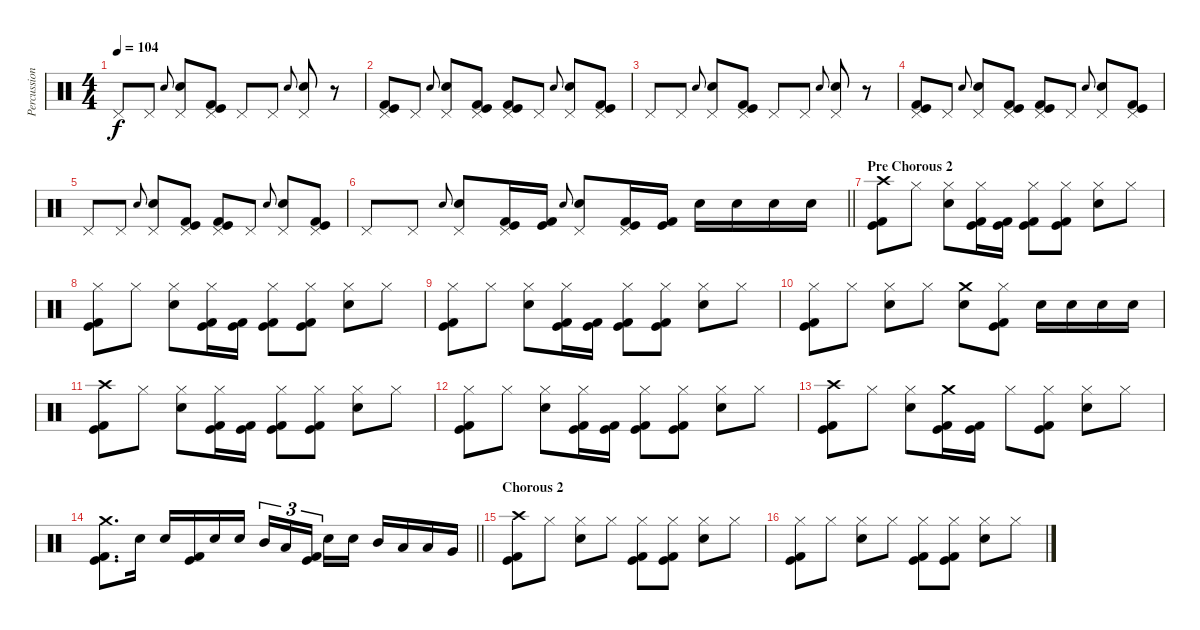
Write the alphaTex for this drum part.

\track ("Percussion" "Percussion") {instrument percussion}
\staff {score}
\articulation defaults
\ts (4 4)
\tempo 104
\clef neutral
\ks c "Pedal Hi-Hat (hit)".8{dy f} "Pedal Hi-Hat (hit)".8 "Electric Snare (hit)".8{gr onbeat}
("Pedal Hi-Hat (hit)" "Electric Snare (hit)").8 ("Pedal Hi-Hat (hit)" "Kick (hit)" "Kick (hit) 2").8 "Pedal Hi-Hat (hit)".8 "Pedal Hi-Hat (hit)".8 "Electric Snare (hit)".8{gr onbeat} ("Pedal Hi-Hat (hit)" "Electric Snare (hit)").8 r.8 |
("Pedal Hi-Hat (hit)" "Kick (hit)" "Kick (hit) 2").8 "Pedal Hi-Hat (hit)".8 "Electric Snare (hit)".8{gr onbeat} ("Pedal Hi-Hat (hit)" "Electric Snare (hit)").8 ("Pedal Hi-Hat (hit)" "Kick (hit)" "Kick (hit) 2").8 ("Pedal Hi-Hat (hit)" "Kick (hit)" "Kick (hit) 2").8 "Pedal Hi-Hat (hit)".8 "Electric Snare (hit)".8{gr onbeat} ("Pedal Hi-Hat (hit)" "Electric Snare (hit)").8 ("Pedal Hi-Hat (hit)" "Kick (hit)" "Kick (hit) 2").8 |
"Pedal Hi-Hat (hit)".8 "Pedal Hi-Hat (hit)".8 "Electric Snare (hit)".8{gr onbeat} ("Pedal Hi-Hat (hit)" "Electric Snare (hit)").8 ("Pedal Hi-Hat (hit)" "Kick (hit)" "Kick (hit) 2").8 "Pedal Hi-Hat (hit)".8 "Pedal Hi-Hat (hit)".8 "Electric Snare (hit)".8{gr onbeat} ("Pedal Hi-Hat (hit)" "Electric Snare (hit)").8 r.8 |
("Pedal Hi-Hat (hit)" "Kick (hit)" "Kick (hit) 2").8 "Pedal Hi-Hat (hit)".8 "Electric Snare (hit)".8{gr onbeat} ("Pedal Hi-Hat (hit)" "Electric Snare (hit)").8 ("Pedal Hi-Hat (hit)" "Kick (hit)" "Kick (hit) 2").8 ("Pedal Hi-Hat (hit)" "Kick (hit)" "Kick (hit) 2").8 "Pedal Hi-Hat (hit)".8 "Electric Snare (hit)".8{gr onbeat} ("Pedal Hi-Hat (hit)" "Electric Snare (hit)").8 ("Pedal Hi-Hat (hit)" "Kick (hit)" "Kick (hit) 2").8 |
"Pedal Hi-Hat (hit)".8 "Pedal Hi-Hat (hit)".8 "Electric Snare (hit)".8{gr onbeat} ("Pedal Hi-Hat (hit)" "Electric Snare (hit)").8 ("Pedal Hi-Hat (hit)" "Kick (hit)" "Kick (hit) 2").8 ("Pedal Hi-Hat (hit)" "Kick (hit)" "Kick (hit) 2").8 "Pedal Hi-Hat (hit)".8 "Electric Snare (hit)".8{gr onbeat} ("Pedal Hi-Hat (hit)" "Electric Snare (hit)").8 ("Pedal Hi-Hat (hit)" "Kick (hit)" "Kick (hit) 2").8 |
\barLineRight lightlight "Pedal Hi-Hat (hit)".8 "Pedal Hi-Hat (hit)".8 "Electric Snare (hit)".8{gr onbeat}
("Pedal Hi-Hat (hit)" "Electric Snare (hit)").8 ("Pedal Hi-Hat (hit)" "Kick (hit)" "Kick (hit) 2").16 ("Kick (hit)" "Kick (hit) 2").16 "Electric Snare (hit)".8{gr onbeat} ("Pedal Hi-Hat (hit)" "Electric Snare (hit)").8 ("Pedal Hi-Hat (hit)" "Kick (hit)" "Kick (hit) 2").16 ("Kick (hit)" "Kick (hit) 2").16 "Electric Snare (hit)".16 "Electric Snare (hit)".16 "Electric Snare (hit)".16 "Electric Snare (hit)".16 |
\section ("" "Pre Chorous 2")
("Crash high (hit)" "Kick (hit)" "Kick (hit) 2").8 "Hi-Hat (closed)".8 ("Hi-Hat (closed)" "Electric Snare (hit)").8 ("Hi-Hat (closed)" "Kick (hit)" "Kick (hit) 2").16 ("Kick (hit)" "Kick (hit) 2").16 ("Hi-Hat (closed)" "Kick (hit)" "Kick (hit) 2").8 ("Hi-Hat (closed)" "Kick (hit)" "Kick (hit) 2").8 ("Hi-Hat (closed)" "Electric Snare (hit)").8 "Hi-Hat (closed)".8 |
("Hi-Hat (closed)" "Kick (hit)" "Kick (hit) 2").8 "Hi-Hat (closed)".8 ("Hi-Hat (closed)" "Electric Snare (hit)").8 ("Hi-Hat (closed)" "Kick (hit)" "Kick (hit) 2").16 ("Kick (hit)" "Kick (hit) 2").16 ("Hi-Hat (closed)" "Kick (hit)" "Kick (hit) 2").8 ("Hi-Hat (closed)" "Kick (hit)" "Kick (hit) 2").8 ("Hi-Hat (closed)" "Electric Snare (hit)").8 "Hi-Hat (closed)".8 |
("Hi-Hat (closed)" "Kick (hit)" "Kick (hit) 2").8 "Hi-Hat (closed)".8 ("Hi-Hat (closed)" "Electric Snare (hit)").8 ("Hi-Hat (closed)" "Kick (hit)" "Kick (hit) 2").16 ("Kick (hit)" "Kick (hit) 2").16 ("Hi-Hat (closed)" "Kick (hit)" "Kick (hit) 2").8 ("Hi-Hat (closed)" "Kick (hit)" "Kick (hit) 2").8 ("Hi-Hat (closed)" "Electric Snare (hit)").8 "Hi-Hat (closed)".8 |
("Hi-Hat (closed)" "Kick (hit)" "Kick (hit) 2").8 "Hi-Hat (closed)".8 ("Hi-Hat (closed)" "Electric Snare (hit)").8 "Hi-Hat (closed)".8 ("Crash medium (hit)" "Electric Snare (hit)").8 ("Hi-Hat (closed)" "Kick (hit)" "Kick (hit) 2").8 "Electric Snare (hit)".16 "Electric Snare (hit)".16 "Electric Snare (hit)".16 "Electric Snare (hit)".16 |
("Crash high (hit)" "Kick (hit)" "Kick (hit) 2").8 "Hi-Hat (closed)".8 ("Hi-Hat (closed)" "Electric Snare (hit)").8 ("Hi-Hat (closed)" "Kick (hit)" "Kick (hit) 2").16 ("Kick (hit)" "Kick (hit) 2").16 ("Hi-Hat (closed)" "Kick (hit)" "Kick (hit) 2").8 ("Hi-Hat (closed)" "Kick (hit)" "Kick (hit) 2").8 ("Hi-Hat (closed)" "Electric Snare (hit)").8 "Hi-Hat (closed)".8 |
("Hi-Hat (closed)" "Kick (hit)" "Kick (hit) 2").8 "Hi-Hat (closed)".8 ("Hi-Hat (closed)" "Electric Snare (hit)").8 ("Hi-Hat (closed)" "Kick (hit)" "Kick (hit) 2").16 ("Kick (hit)" "Kick (hit) 2").16 ("Hi-Hat (closed)" "Kick (hit)" "Kick (hit) 2").8 ("Hi-Hat (closed)" "Kick (hit)" "Kick (hit) 2").8 ("Hi-Hat (closed)" "Electric Snare (hit)").8 "Hi-Hat (closed)".8 |
("Crash high (hit)" "Kick (hit)" "Kick (hit) 2").8 "Hi-Hat (closed)".8 ("Hi-Hat (closed)" "Electric Snare (hit)").8 ("Crash medium (hit)" "Kick (hit)" "Kick (hit) 2").16 ("Kick (hit)" "Kick (hit) 2").16 "Hi-Hat (closed)".8 ("Hi-Hat (closed)" "Kick (hit)" "Kick (hit) 2").8 ("Hi-Hat (closed)" "Electric Snare (hit)").8 "Hi-Hat (closed)".8 |
\barLineRight lightlight
("Crash medium (hit)" "Kick (hit)" "Kick (hit) 2").8{d} "Electric Snare (hit)".16 "Electric Snare (hit)".16 ("Kick (hit)" "Kick (hit) 2").16 "Electric Snare (hit)".16 "Electric Snare (hit)".16 "Mid Tom (hit)".16{tu (3 2)} "Low Tom (hit)".16{tu (3 2)} ("Kick (hit)" "Kick (hit) 2").16{tu (3 2) beam splitsecondary} "Electric Snare (hit)".16 "Electric Snare (hit)".16 "Mid Tom (hit)".16 "Low Tom (hit)".16 "Low Tom (hit)".16 "Very Low Tom (hit)".16 |
\section ("" "Chorous 2")
("Crash high (hit)" "Kick (hit)" "Kick (hit) 2").8 "Hi-Hat (closed)".8 ("Hi-Hat (closed)" "Electric Snare (hit)").8 "Hi-Hat (closed)".8 ("Hi-Hat (closed)" "Kick (hit)" "Kick (hit) 2").8 ("Hi-Hat (closed)" "Kick (hit)" "Kick (hit) 2").8 ("Hi-Hat (closed)" "Electric Snare (hit)").8 "Hi-Hat (closed)".8 |
("Hi-Hat (closed)" "Kick (hit)" "Kick (hit) 2").8 "Hi-Hat (closed)".8 ("Hi-Hat (closed)" "Electric Snare (hit)").8 "Hi-Hat (closed)".8 ("Hi-Hat (closed)" "Kick (hit)" "Kick (hit) 2").8 ("Hi-Hat (closed)" "Kick (hit)" "Kick (hit) 2").8 ("Hi-Hat (closed)" "Electric Snare (hit)").8 "Hi-Hat (closed)".8
